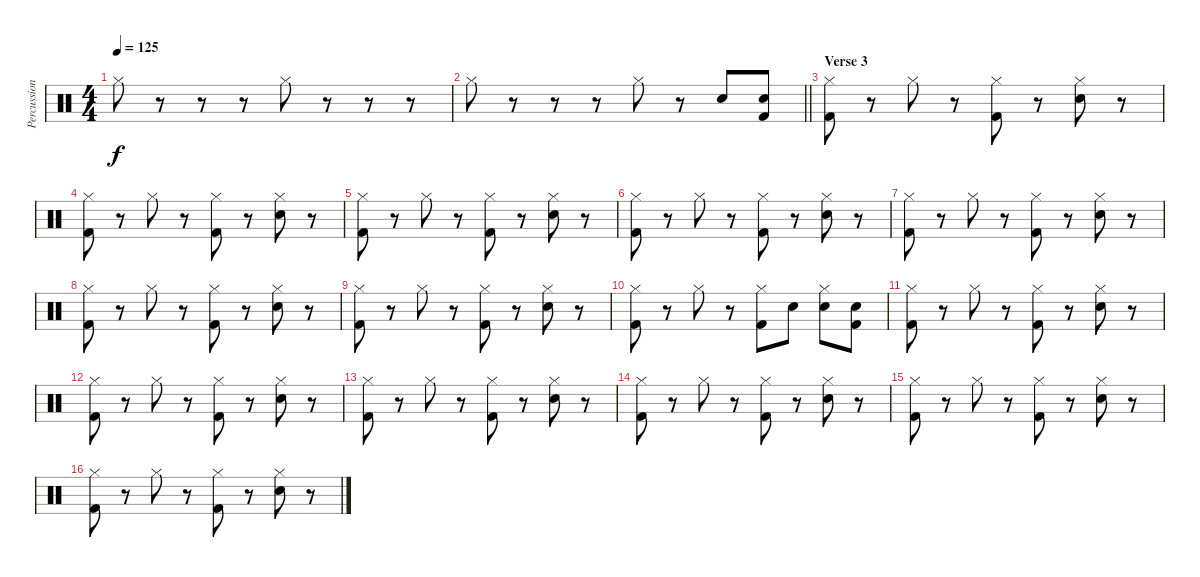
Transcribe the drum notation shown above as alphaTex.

\track ("Percussion" "Percussion") {instrument percussion}
\staff {score}
\articulation defaults
\ts (4 4)
\tempo 125
\clef neutral
\ks c "Hi-Hat (closed)".8{dy f}
r.8 r.8 r.8 "Hi-Hat (closed)".8 r.8 r.8 r.8 |
\barLineRight lightlight "Hi-Hat (closed)".8
r.8 r.8 r.8 "Hi-Hat (closed)".8 r.8 "Electric Snare (hit)".8 ("Electric Snare (hit)" "Kick (hit) 2").8 |
\section ("" "Verse 3")
("Kick (hit) 2" "Hi-Hat (closed)").8 r.8 "Hi-Hat (closed)".8 r.8 ("Kick (hit) 2" "Hi-Hat (closed)").8 r.8 ("Electric Snare (hit)" "Hi-Hat (closed)").8 r.8 |
("Kick (hit) 2" "Hi-Hat (closed)").8 r.8 "Hi-Hat (closed)".8 r.8 ("Kick (hit) 2" "Hi-Hat (closed)").8 r.8 ("Electric Snare (hit)" "Hi-Hat (closed)").8 r.8 |
("Kick (hit) 2" "Hi-Hat (closed)").8 r.8 "Hi-Hat (closed)".8 r.8 ("Kick (hit) 2" "Hi-Hat (closed)").8 r.8 ("Electric Snare (hit)" "Hi-Hat (closed)").8 r.8 |
("Kick (hit) 2" "Hi-Hat (closed)").8 r.8 "Hi-Hat (closed)".8 r.8 ("Kick (hit) 2" "Hi-Hat (closed)").8 r.8 ("Electric Snare (hit)" "Hi-Hat (closed)").8 r.8 |
("Kick (hit) 2" "Hi-Hat (closed)").8 r.8 "Hi-Hat (closed)".8 r.8 ("Kick (hit) 2" "Hi-Hat (closed)").8 r.8 ("Electric Snare (hit)" "Hi-Hat (closed)").8 r.8 |
("Kick (hit) 2" "Hi-Hat (closed)").8 r.8 "Hi-Hat (closed)".8 r.8 ("Kick (hit) 2" "Hi-Hat (closed)").8 r.8 ("Electric Snare (hit)" "Hi-Hat (closed)").8 r.8 |
("Kick (hit) 2" "Hi-Hat (closed)").8 r.8 "Hi-Hat (closed)".8 r.8 ("Kick (hit) 2" "Hi-Hat (closed)").8 r.8 ("Electric Snare (hit)" "Hi-Hat (closed)").8 r.8 |
("Kick (hit) 2" "Hi-Hat (closed)").8 r.8 "Hi-Hat (closed)".8 r.8 ("Kick (hit) 2" "Hi-Hat (closed)").8 "Electric Snare (hit)".8 ("Electric Snare (hit)" "Hi-Hat (closed)").8 ("Electric Snare (hit)" "Kick (hit) 2").8 |
("Kick (hit) 2" "Hi-Hat (closed)").8 r.8 "Hi-Hat (closed)".8 r.8 ("Kick (hit) 2" "Hi-Hat (closed)").8 r.8 ("Electric Snare (hit)" "Hi-Hat (closed)").8 r.8 |
("Kick (hit) 2" "Hi-Hat (closed)").8 r.8 "Hi-Hat (closed)".8 r.8 ("Kick (hit) 2" "Hi-Hat (closed)").8 r.8 ("Electric Snare (hit)" "Hi-Hat (closed)").8 r.8 |
("Kick (hit) 2" "Hi-Hat (closed)").8 r.8 "Hi-Hat (closed)".8 r.8 ("Kick (hit) 2" "Hi-Hat (closed)").8 r.8 ("Electric Snare (hit)" "Hi-Hat (closed)").8 r.8 |
("Kick (hit) 2" "Hi-Hat (closed)").8 r.8 "Hi-Hat (closed)".8 r.8 ("Kick (hit) 2" "Hi-Hat (closed)").8 r.8 ("Electric Snare (hit)" "Hi-Hat (closed)").8 r.8 |
("Kick (hit) 2" "Hi-Hat (closed)").8 r.8 "Hi-Hat (closed)".8 r.8 ("Kick (hit) 2" "Hi-Hat (closed)").8 r.8 ("Electric Snare (hit)" "Hi-Hat (closed)").8 r.8 |
("Kick (hit) 2" "Hi-Hat (closed)").8 r.8 "Hi-Hat (closed)".8 r.8 ("Kick (hit) 2" "Hi-Hat (closed)").8 r.8 ("Electric Snare (hit)" "Hi-Hat (closed)").8 r.8
